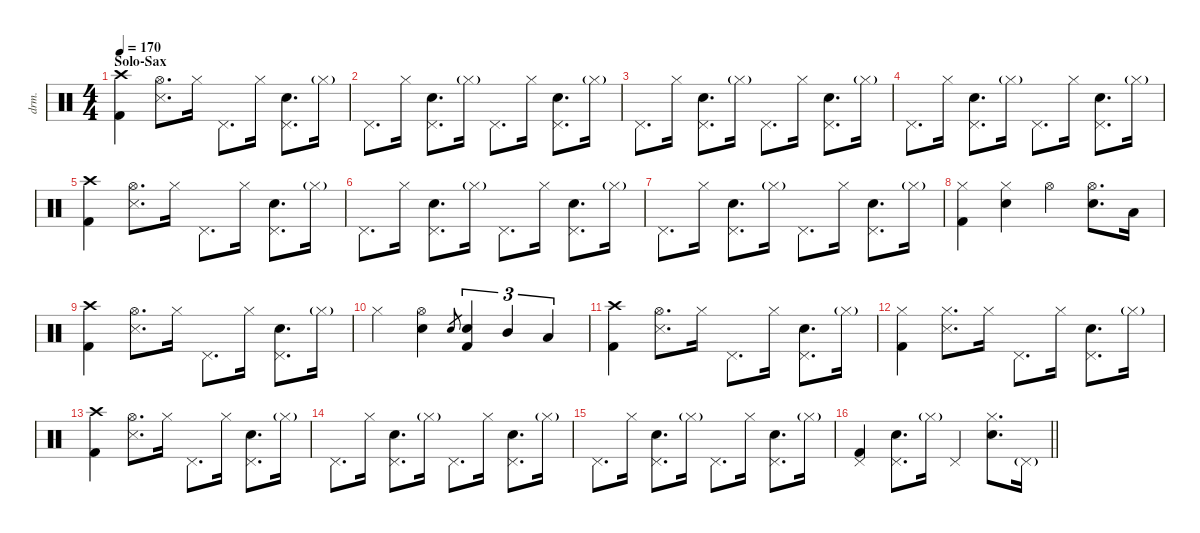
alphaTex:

\defaultSystemsLayout 4
\hideDynamics
\useSystemSignSeparator
\otherSystemsTrackNameOrientation horizontal
\extendBarLines
\track ("Drums" "drm.") {instrument percussion}
\staff {score}
\articulation defaults
\ts (4 4)
\section ("" "Solo-Sax")
\tempo 170
\clef neutral
\ks c
("Crash high (hit)" "Kick (hit) 2").4{dy f beam Down} ("Hi-Hat (open)" "Snare (side stick) 3").8{d beam Down} "Hi-Hat (closed)".16{beam Down} "Pedal Hi-Hat (hit)".8{d beam Down} "Hi-Hat (closed)".16{beam Down} ("Pedal Hi-Hat (hit)" "Snare (hit) 2").8{d beam Down} "Hi-Hat (closed)"{g}.16{dy mf beam Down} |
"Pedal Hi-Hat (hit)".8{d dy f beam Down} "Hi-Hat (closed)".16{beam Down} ("Pedal Hi-Hat (hit)" "Snare (hit) 2").8{d beam Down} "Hi-Hat (closed)"{g}.16{dy mf beam Down} "Pedal Hi-Hat (hit)".8{d dy f beam Down} "Hi-Hat (closed)".16{beam Down} ("Pedal Hi-Hat (hit)" "Snare (hit) 2").8{d beam Down} "Hi-Hat (closed)"{g}.16{dy mf beam Down} |
"Pedal Hi-Hat (hit)".8{d dy f beam Down} "Hi-Hat (closed)".16{beam Down} ("Pedal Hi-Hat (hit)" "Snare (hit) 2").8{d beam Down} "Hi-Hat (closed)"{g}.16{dy mf beam Down} "Pedal Hi-Hat (hit)".8{d dy f beam Down} "Hi-Hat (closed)".16{beam Down} ("Pedal Hi-Hat (hit)" "Snare (hit) 2").8{d beam Down} "Hi-Hat (closed)"{g}.16{dy mf beam Down} |
"Pedal Hi-Hat (hit)".8{d dy f beam Down} "Hi-Hat (closed)".16{beam Down} ("Pedal Hi-Hat (hit)" "Snare (hit) 2").8{d beam Down} "Hi-Hat (closed)"{g}.16{dy mf beam Down} "Pedal Hi-Hat (hit)".8{d dy f beam Down} "Hi-Hat (closed)".16{beam Down} ("Pedal Hi-Hat (hit)" "Snare (hit) 2").8{d beam Down} "Hi-Hat (closed)"{g}.16{dy mf beam Down} |
("Crash high (hit)" "Kick (hit) 2").4{dy f beam Down} ("Hi-Hat (open)" "Snare (side stick) 3").8{d beam Down} "Hi-Hat (closed)".16{beam Down} "Pedal Hi-Hat (hit)".8{d beam Down} "Hi-Hat (closed)".16{beam Down} ("Pedal Hi-Hat (hit)" "Snare (hit) 2").8{d beam Down} "Hi-Hat (closed)"{g}.16{dy mf beam Down} |
"Pedal Hi-Hat (hit)".8{d dy f beam Down} "Hi-Hat (closed)".16{beam Down} ("Pedal Hi-Hat (hit)" "Snare (hit) 2").8{d beam Down} "Hi-Hat (closed)"{g}.16{dy mf beam Down} "Pedal Hi-Hat (hit)".8{d dy f beam Down} "Hi-Hat (closed)".16{beam Down} ("Pedal Hi-Hat (hit)" "Snare (hit) 2").8{d beam Down} "Hi-Hat (closed)"{g}.16{dy mf beam Down} |
"Pedal Hi-Hat (hit)".8{d dy f beam Down} "Hi-Hat (closed)".16{beam Down} ("Pedal Hi-Hat (hit)" "Snare (hit) 2").8{d beam Down} "Hi-Hat (closed)"{g}.16{dy mf beam Down} "Pedal Hi-Hat (hit)".8{d dy f beam Down} "Hi-Hat (closed)".16{beam Down} ("Pedal Hi-Hat (hit)" "Snare (hit) 2").8{d beam Down} "Hi-Hat (closed)"{g}.16{dy mf beam Down} |
("Hi-Hat (closed)" "Kick (hit) 2").4{dy f beam Down} ("Hi-Hat (closed)" "Snare (hit) 2").4{beam Down} "Hi-Hat (open)".4{beam Down} ("Hi-Hat (open)" "Snare (hit) 2").8{d beam Down} "Low Tom (hit)".16{beam Down} |
("Crash high (hit)" "Kick (hit) 2").4{beam Down} ("Hi-Hat (open)" "Snare (side stick) 3").8{d beam Down} "Hi-Hat (closed)".16{beam Down} "Pedal Hi-Hat (hit)".8{d beam Down} "Hi-Hat (closed)".16{beam Down} ("Pedal Hi-Hat (hit)" "Snare (hit) 2").8{d beam Down} "Hi-Hat (closed)"{g}.16{dy mf beam Down} |
"Hi-Hat (closed)".4{dy f beam Down} ("Hi-Hat (open)" "Snare (hit) 2").4{beam Down} "Snare (hit) 2".8{gr dy mf beam Up} ("Snare (hit) 2" "Kick (hit) 2").4{tu (3 2) dy f beam Up} "Mid Tom (hit)".4{tu (3 2) beam Up} "Low Tom (hit)".4{tu (3 2) beam Up} |
("Crash high (hit)" "Kick (hit) 2").4{beam Down} ("Hi-Hat (open)" "Snare (side stick) 3").8{d beam Down} "Hi-Hat (closed)".16{beam Down} "Pedal Hi-Hat (hit)".8{d beam Down} "Hi-Hat (closed)".16{beam Down} ("Pedal Hi-Hat (hit)" "Snare (hit) 2").8{d beam Down} "Hi-Hat (closed)"{g}.16{dy mf beam Down} |
("Hi-Hat (closed)" "Kick (hit) 2").4{dy f beam Down} ("Hi-Hat (closed)" "Snare (side stick) 3").8{d beam Down} "Hi-Hat (closed)".16{beam Down} "Pedal Hi-Hat (hit)".8{d beam Down} "Hi-Hat (closed)".16{beam Down} ("Pedal Hi-Hat (hit)" "Snare (hit) 2").8{d beam Down} "Hi-Hat (closed)"{g}.16{dy mf beam Down} |
("Crash high (hit)" "Kick (hit) 2").4{dy f beam Down} ("Hi-Hat (open)" "Snare (side stick) 3").8{d beam Down} "Hi-Hat (closed)".16{beam Down} "Pedal Hi-Hat (hit)".8{d beam Down} "Hi-Hat (closed)".16{beam Down} ("Pedal Hi-Hat (hit)" "Snare (hit) 2").8{d beam Down} "Hi-Hat (closed)"{g}.16{dy mf beam Down} |
"Pedal Hi-Hat (hit)".8{d dy f beam Down} "Hi-Hat (closed)".16{beam Down} ("Pedal Hi-Hat (hit)" "Snare (hit) 2").8{d beam Down} "Hi-Hat (closed)"{g}.16{dy mf beam Down} "Pedal Hi-Hat (hit)".8{d dy f beam Down} "Hi-Hat (closed)".16{beam Down} ("Pedal Hi-Hat (hit)" "Snare (hit) 2").8{d beam Down} "Hi-Hat (closed)"{g}.16{dy mf beam Down} |
"Pedal Hi-Hat (hit)".8{d dy f beam Down} "Hi-Hat (closed)".16{beam Down} ("Pedal Hi-Hat (hit)" "Snare (hit) 2").8{d beam Down} "Hi-Hat (closed)"{g}.16{dy mf beam Down} "Pedal Hi-Hat (hit)".8{d dy f beam Down} "Hi-Hat (closed)".16{beam Down} ("Pedal Hi-Hat (hit)" "Snare (hit) 2").8{d beam Down} "Hi-Hat (closed)"{g}.16{dy mf beam Down} |
\barLineRight lightlight
("Pedal Hi-Hat (hit)" "Kick (hit) 2").4{dy f beam Up} ("Pedal Hi-Hat (hit)" "Snare (hit) 2").8{d beam Down} "Hi-Hat (closed)"{g}.16{dy mf beam Down} "Pedal Hi-Hat (hit)".4{dy f beam Up} ("Hi-Hat (closed)" "Snare (hit) 2").8{d beam Down} "Pedal Hi-Hat (hit)"{g}.16{dy mf beam Down}
